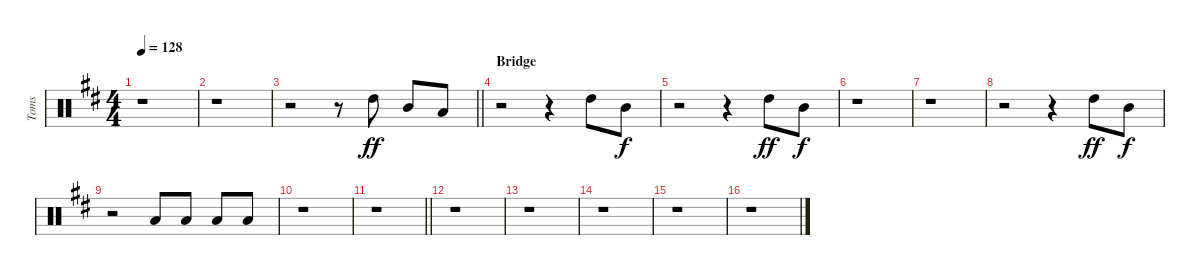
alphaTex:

\track ("Toms" "Toms") {instrument percussion}
\staff {score}
\articulation defaults
\ts (4 4)
\tempo 128
\clef neutral
\ks bminor
r.1{dy f} |
r.1 |
\barLineRight lightlight
r.2 r.8 "High Tom (hit)".8{dy ff} "Mid Tom (hit)".8 "Low Tom (hit)".8 |
\section ("" "Bridge")
r.2 r.4 "High Tom (hit)".8 "Mid Tom (hit)".8{dy f} |
r.2 r.4 "High Tom (hit)".8{dy ff} "Mid Tom (hit)".8{dy f} |
r.1 |
r.1 |
r.2 r.4 "High Tom (hit)".8{dy ff} "Mid Tom (hit)".8{dy f} |
r.2 "Low Tom (hit)".8 "Low Tom (hit)".8 "Low Tom (hit)".8 "Low Tom (hit)".8 |
r.1 |
\barLineRight lightlight
r.1 |
r.1 |
r.1 |
r.1 |
r.1 |
r.1
